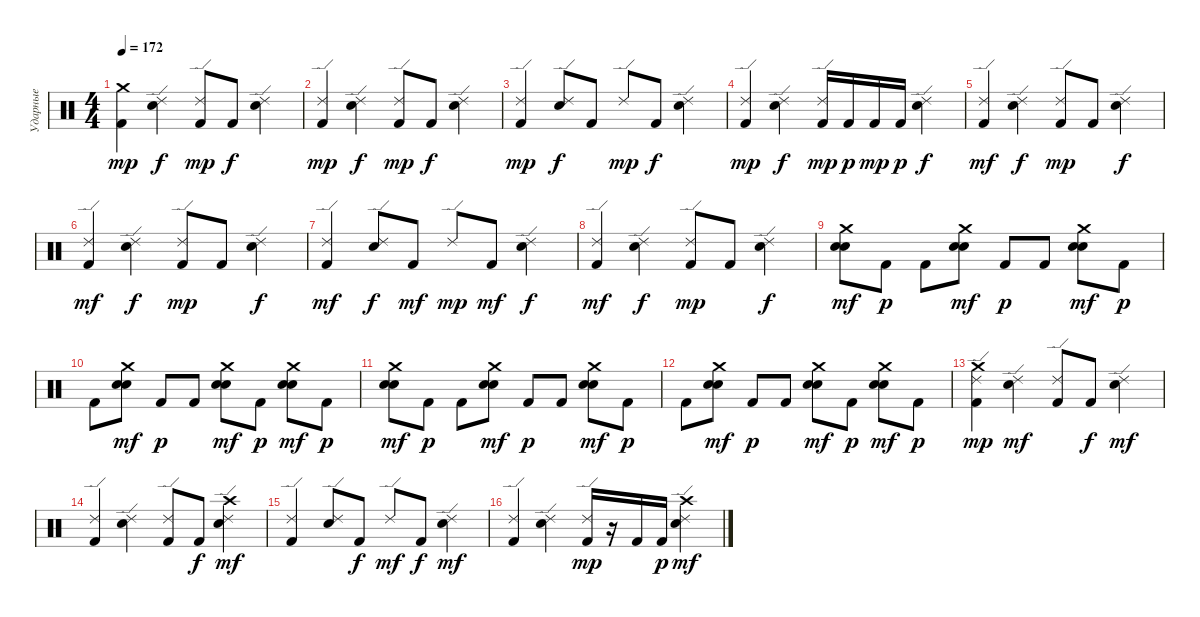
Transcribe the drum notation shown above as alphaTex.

\track ("Ударные" "Ударные") {instrument percussion}
\staff {score}
\articulation defaults
\ts (4 4)
\tempo 172
\clef neutral
\ks c
("Crash medium (hit)" "Kick (hit) 2").4{dy mp} ("Ride (edge) 2" "Electric Snare (hit)").4{dy f} ("Ride (edge) 2" "Kick (hit) 2").8{dy mp} "Kick (hit) 2".8{dy f} ("Ride (edge) 2" "Electric Snare (hit)").4 |
("Ride (edge) 2" "Kick (hit) 2").4{dy mp} ("Ride (edge) 2" "Electric Snare (hit)").4{dy f} ("Ride (edge) 2" "Kick (hit) 2").8{dy mp} "Kick (hit) 2".8{dy f} ("Ride (edge) 2" "Electric Snare (hit)").4 |
("Ride (edge) 2" "Kick (hit) 2").4{dy mp} ("Ride (edge) 2" "Electric Snare (hit)").8{dy f} "Kick (hit) 2".8 "Ride (edge) 2".8{dy mp} "Kick (hit) 2".8{dy f} ("Ride (edge) 2" "Electric Snare (hit)").4 |
("Ride (edge) 2" "Kick (hit) 2").4{dy mp} ("Ride (edge) 2" "Electric Snare (hit)").4{dy f} ("Ride (edge) 2" "Kick (hit) 2").16{dy mp} "Kick (hit) 2".16{dy p} "Kick (hit) 2".16{dy mp} "Kick (hit) 2".16{dy p} ("Ride (edge) 2" "Electric Snare (hit)").4{dy f} |
("Ride (edge) 2" "Kick (hit) 2").4{dy mf} ("Ride (edge) 2" "Electric Snare (hit)").4{dy f} ("Ride (edge) 2" "Kick (hit) 2").8{dy mp} "Kick (hit) 2".8 ("Ride (edge) 2" "Electric Snare (hit)").4{dy f} |
("Ride (edge) 2" "Kick (hit) 2").4{dy mf} ("Ride (edge) 2" "Electric Snare (hit)").4{dy f} ("Ride (edge) 2" "Kick (hit) 2").8{dy mp} "Kick (hit) 2".8 ("Ride (edge) 2" "Electric Snare (hit)").4{dy f} |
("Ride (edge) 2" "Kick (hit) 2").4{dy mf} ("Ride (edge) 2" "Electric Snare (hit)").8{dy f} "Kick (hit) 2".8{dy mf} "Ride (edge) 2".8{dy mp} "Kick (hit) 2".8{dy mf} ("Ride (edge) 2" "Electric Snare (hit)").4{dy f} |
("Ride (edge) 2" "Kick (hit) 2").4{dy mf} ("Ride (edge) 2" "Electric Snare (hit)").4{dy f} ("Ride (edge) 2" "Kick (hit) 2").8{dy mp} "Kick (hit) 2".8 ("Ride (edge) 2" "Electric Snare (hit)").4{dy f} |
\section ("" "")
("Crash medium (hit)" "Electric Snare (hit)" "Snare (hit) 2").8{dy mf} "Kick (hit) 2".8{dy p} "Kick (hit) 2".8 ("Crash medium (hit)" "Electric Snare (hit)" "Snare (hit) 2").8{dy mf} "Kick (hit) 2".8{dy p} "Kick (hit) 2".8 ("Crash medium (hit)" "Electric Snare (hit)" "Snare (hit) 2").8{dy mf} "Kick (hit) 2".8{dy p} |
"Kick (hit) 2".8 ("Crash medium (hit)" "Electric Snare (hit)" "Snare (hit) 2").8{dy mf} "Kick (hit) 2".8{dy p} "Kick (hit) 2".8 ("Crash medium (hit)" "Electric Snare (hit)" "Snare (hit) 2").8{dy mf} "Kick (hit) 2".8{dy p} ("Crash medium (hit)" "Electric Snare (hit)" "Snare (hit) 2").8{dy mf} "Kick (hit) 2".8{dy p} |
("Crash medium (hit)" "Electric Snare (hit)" "Snare (hit) 2").8{dy mf} "Kick (hit) 2".8{dy p} "Kick (hit) 2".8 ("Crash medium (hit)" "Electric Snare (hit)" "Snare (hit) 2").8{dy mf} "Kick (hit) 2".8{dy p} "Kick (hit) 2".8 ("Crash medium (hit)" "Electric Snare (hit)" "Snare (hit) 2").8{dy mf} "Kick (hit) 2".8{dy p} |
"Kick (hit) 2".8 ("Crash medium (hit)" "Electric Snare (hit)" "Snare (hit) 2").8{dy mf} "Kick (hit) 2".8{dy p} "Kick (hit) 2".8 ("Crash medium (hit)" "Electric Snare (hit)" "Snare (hit) 2").8{dy mf} "Kick (hit) 2".8{dy p} ("Crash medium (hit)" "Electric Snare (hit)" "Snare (hit) 2").8{dy mf} "Kick (hit) 2".8{dy p} |
("Ride (edge) 2" "Crash medium (hit)" "Kick (hit) 2").4{dy mp} ("Ride (edge) 2" "Electric Snare (hit)").4{dy mf} ("Ride (edge) 2" "Kick (hit) 2").8 "Kick (hit) 2".8{dy f} ("Ride (edge) 2" "Electric Snare (hit)").4{dy mf} |
("Ride (edge) 2" "Kick (hit) 2").4 ("Ride (edge) 2" "Electric Snare (hit)").4 ("Ride (edge) 2" "Kick (hit) 2").8 "Kick (hit) 2".8{dy f} ("Crash high (hit)" "Ride (edge) 2" "Electric Snare (hit)").4{dy mf} |
("Ride (edge) 2" "Kick (hit) 2").4 ("Ride (edge) 2" "Electric Snare (hit)").8 "Kick (hit) 2".8{dy f} "Ride (edge) 2".8{dy mf} "Kick (hit) 2".8{dy f} ("Ride (edge) 2" "Electric Snare (hit)").4{dy mf} |
("Ride (edge) 2" "Kick (hit) 2").4 ("Ride (edge) 2" "Electric Snare (hit)").4 ("Ride (edge) 2" "Kick (hit) 2").16{dy mp} r.16 "Kick (hit) 2".16 "Kick (hit) 2".16{dy p} ("Crash high (hit)" "Ride (edge) 2" "Electric Snare (hit)").4{dy mf}
